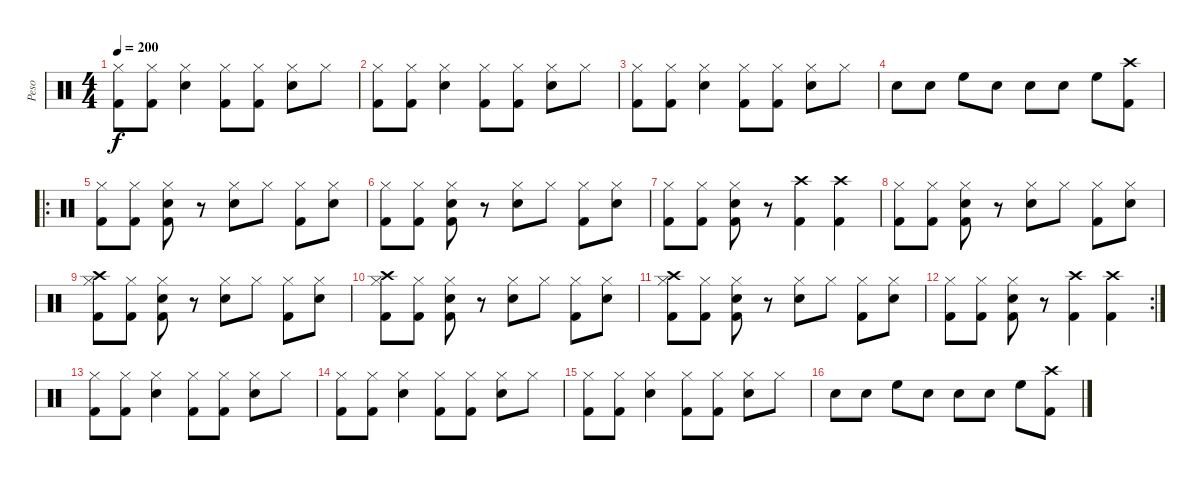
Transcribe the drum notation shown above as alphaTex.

\track ("Peso" "Peso") {instrument percussion}
\staff {score}
\articulation defaults
\ts (4 4)
\tempo 200
\clef neutral
\ks c
("Hi-Hat (closed)" "Kick (hit) 2").8{dy f} ("Hi-Hat (closed)" "Kick (hit) 2").8 ("Hi-Hat (closed)" "Snare (hit) 2").4 ("Hi-Hat (closed)" "Kick (hit) 2").8 ("Hi-Hat (closed)" "Kick (hit) 2").8 ("Hi-Hat (closed)" "Snare (hit) 2").8 "Hi-Hat (closed)".8 |
("Hi-Hat (closed)" "Kick (hit) 2").8 ("Hi-Hat (closed)" "Kick (hit) 2").8 ("Hi-Hat (closed)" "Snare (hit) 2").4 ("Hi-Hat (closed)" "Kick (hit) 2").8 ("Hi-Hat (closed)" "Kick (hit) 2").8 ("Hi-Hat (closed)" "Snare (hit) 2").8 "Hi-Hat (closed)".8 |
("Hi-Hat (closed)" "Kick (hit) 2").8 ("Hi-Hat (closed)" "Kick (hit) 2").8 ("Hi-Hat (closed)" "Snare (hit) 2").4 ("Hi-Hat (closed)" "Kick (hit) 2").8 ("Hi-Hat (closed)" "Kick (hit) 2").8 ("Hi-Hat (closed)" "Snare (hit) 2").8 "Hi-Hat (closed)".8 |
"Snare (hit) 2".8 "Snare (hit) 2".8 "High Floor Tom (hit)".8 "Snare (hit)"{x}.8 "Snare (hit) 2".8 "Snare (hit) 2".8 "High Floor Tom (hit)".8 ("Crash high (hit)" "Kick (hit) 2").8 |
\ro
("Hi-Hat (closed)" "Kick (hit) 2").8 ("Hi-Hat (closed)" "Kick (hit) 2").8 ("Hi-Hat (closed)" "Snare (hit) 2" "Kick (hit) 2").8 r.8 ("Hi-Hat (closed)" "Snare (hit) 2").8 "Hi-Hat (closed)".8 ("Hi-Hat (closed)" "Kick (hit) 2").8 ("Hi-Hat (closed)" "Snare (hit) 2").8 |
("Hi-Hat (closed)" "Kick (hit) 2").8 ("Hi-Hat (closed)" "Kick (hit) 2").8 ("Hi-Hat (closed)" "Snare (hit) 2" "Kick (hit) 2").8 r.8 ("Hi-Hat (closed)" "Snare (hit) 2").8 "Hi-Hat (closed)".8 ("Hi-Hat (closed)" "Kick (hit) 2").8 ("Hi-Hat (closed)" "Snare (hit) 2").8 |
("Hi-Hat (closed)" "Kick (hit) 2").8 ("Hi-Hat (closed)" "Kick (hit) 2").8 ("Hi-Hat (closed)" "Snare (hit) 2" "Kick (hit) 2").8 r.8 ("Crash high (hit)" "Kick (hit) 2").4 ("Crash high (hit)" "Kick (hit) 2").4 |
("Hi-Hat (closed)" "Kick (hit) 2").8 ("Hi-Hat (closed)" "Kick (hit) 2").8 ("Hi-Hat (closed)" "Snare (hit) 2" "Kick (hit) 2").8 r.8 ("Hi-Hat (closed)" "Snare (hit) 2").8 "Hi-Hat (closed)".8 ("Hi-Hat (closed)" "Kick (hit) 2").8 ("Hi-Hat (closed)" "Snare (hit) 2").8 |
("Crash high (hit)" "Hi-Hat (closed)" "Kick (hit) 2").8 ("Hi-Hat (closed)" "Kick (hit) 2").8 ("Hi-Hat (closed)" "Snare (hit) 2" "Kick (hit) 2").8 r.8 ("Hi-Hat (closed)" "Snare (hit) 2").8 "Hi-Hat (closed)".8 ("Hi-Hat (closed)" "Kick (hit) 2").8 ("Hi-Hat (closed)" "Snare (hit) 2").8 |
("Crash high (hit)" "Hi-Hat (closed)" "Kick (hit) 2").8 ("Hi-Hat (closed)" "Kick (hit) 2").8 ("Hi-Hat (closed)" "Snare (hit) 2" "Kick (hit) 2").8 r.8 ("Hi-Hat (closed)" "Snare (hit) 2").8 "Hi-Hat (closed)".8 ("Hi-Hat (closed)" "Kick (hit) 2").8 ("Hi-Hat (closed)" "Snare (hit) 2").8 |
("Crash high (hit)" "Hi-Hat (closed)" "Kick (hit) 2").8 ("Hi-Hat (closed)" "Kick (hit) 2").8 ("Hi-Hat (closed)" "Snare (hit) 2" "Kick (hit) 2").8 r.8 ("Hi-Hat (closed)" "Snare (hit) 2").8 "Hi-Hat (closed)".8 ("Hi-Hat (closed)" "Kick (hit) 2").8 ("Hi-Hat (closed)" "Snare (hit) 2").8 |
\rc 2
("Hi-Hat (closed)" "Kick (hit) 2").8 ("Hi-Hat (closed)" "Kick (hit) 2").8 ("Hi-Hat (closed)" "Snare (hit) 2" "Kick (hit) 2").8 r.8 ("Crash high (hit)" "Kick (hit) 2").4 ("Crash high (hit)" "Kick (hit) 2").4 |
("Hi-Hat (closed)" "Kick (hit) 2").8 ("Hi-Hat (closed)" "Kick (hit) 2").8 ("Hi-Hat (closed)" "Snare (hit) 2").4 ("Hi-Hat (closed)" "Kick (hit) 2").8 ("Hi-Hat (closed)" "Kick (hit) 2").8 ("Hi-Hat (closed)" "Snare (hit) 2").8 "Hi-Hat (closed)".8 |
("Hi-Hat (closed)" "Kick (hit) 2").8 ("Hi-Hat (closed)" "Kick (hit) 2").8 ("Hi-Hat (closed)" "Snare (hit) 2").4 ("Hi-Hat (closed)" "Kick (hit) 2").8 ("Hi-Hat (closed)" "Kick (hit) 2").8 ("Hi-Hat (closed)" "Snare (hit) 2").8 "Hi-Hat (closed)".8 |
("Hi-Hat (closed)" "Kick (hit) 2").8 ("Hi-Hat (closed)" "Kick (hit) 2").8 ("Hi-Hat (closed)" "Snare (hit) 2").4 ("Hi-Hat (closed)" "Kick (hit) 2").8 ("Hi-Hat (closed)" "Kick (hit) 2").8 ("Hi-Hat (closed)" "Snare (hit) 2").8 "Hi-Hat (closed)".8 |
"Snare (hit) 2".8 "Snare (hit) 2".8 "High Floor Tom (hit)".8 "Snare (hit)"{x}.8 "Snare (hit) 2".8 "Snare (hit) 2".8 "High Floor Tom (hit)".8 ("Crash high (hit)" "Kick (hit) 2").8
